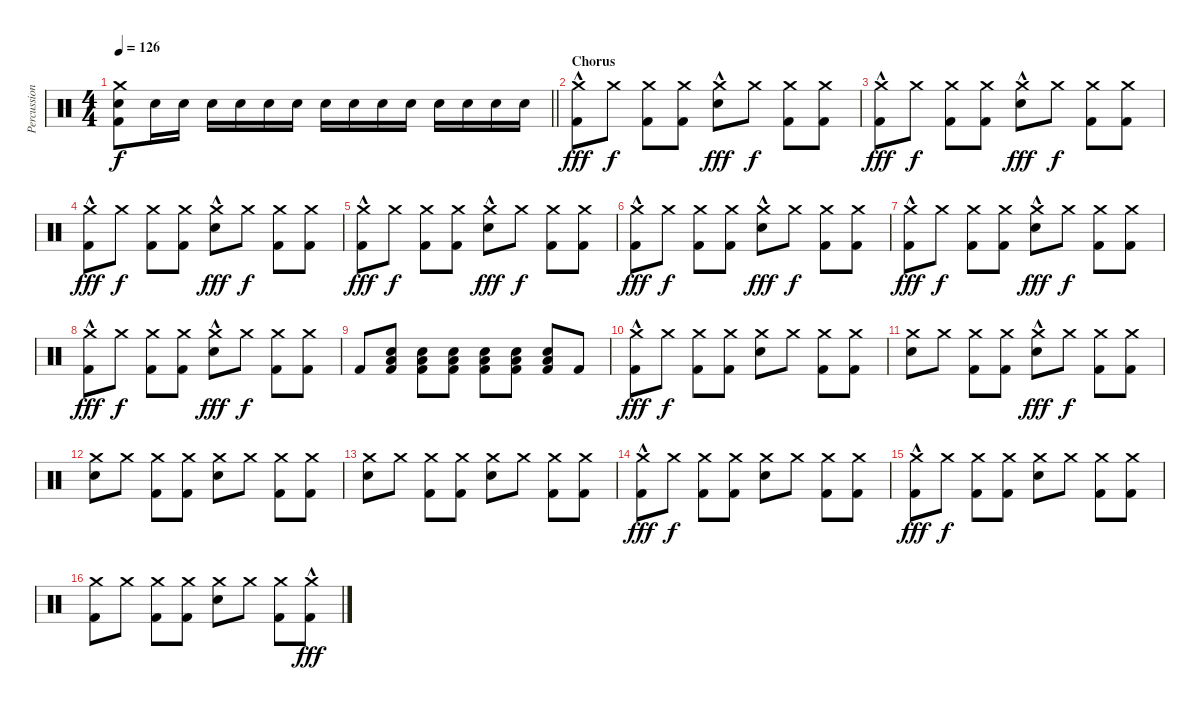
\track ("Percussion" "Percussion") {instrument percussion}
\staff {score}
\articulation defaults
\ts (4 4)
\tempo 126
\clef neutral
\barLineRight lightlight
\ks c
("Crash medium (hit)" "Snare (hit) 2" "Kick (hit) 2").8{dy f} "Snare (hit) 2".16 "Snare (hit) 2".16 "Snare (hit) 2".16 "Snare (hit) 2".16 "Snare (hit) 2".16 "Snare (hit) 2".16 "Snare (hit) 2".16 "Snare (hit) 2".16 "Snare (hit) 2".16 "Snare (hit) 2".16 "Snare (hit) 2".16 "Snare (hit) 2".16 "Snare (hit) 2".16 "Snare (hit) 2".16 |
\section ("" "Chorus")
("Crash medium (hit)"{hac} "Kick (hit) 2").8{dy fff} "Crash medium (hit)".8{dy f} ("Crash medium (hit)" "Kick (hit) 2").8 ("Crash medium (hit)" "Kick (hit) 2").8 ("Crash medium (hit)"{hac} "Snare (hit) 2").8{dy fff} "Crash medium (hit)".8{dy f} ("Crash medium (hit)" "Kick (hit) 2").8 ("Crash medium (hit)" "Kick (hit) 2").8 |
("Crash medium (hit)"{hac} "Kick (hit) 2").8{dy fff} "Crash medium (hit)".8{dy f} ("Crash medium (hit)" "Kick (hit) 2").8 ("Crash medium (hit)" "Kick (hit) 2").8 ("Crash medium (hit)"{hac} "Snare (hit) 2").8{dy fff} "Crash medium (hit)".8{dy f} ("Crash medium (hit)" "Kick (hit) 2").8 ("Crash medium (hit)" "Kick (hit) 2").8 |
("Crash medium (hit)"{hac} "Kick (hit) 2").8{dy fff} "Crash medium (hit)".8{dy f} ("Crash medium (hit)" "Kick (hit) 2").8 ("Crash medium (hit)" "Kick (hit) 2").8 ("Crash medium (hit)"{hac} "Snare (hit) 2").8{dy fff} "Crash medium (hit)".8{dy f} ("Crash medium (hit)" "Kick (hit) 2").8 ("Crash medium (hit)" "Kick (hit) 2").8 |
("Crash medium (hit)"{hac} "Kick (hit) 2").8{dy fff} "Crash medium (hit)".8{dy f} ("Crash medium (hit)" "Kick (hit) 2").8 ("Crash medium (hit)" "Kick (hit) 2").8 ("Crash medium (hit)"{hac} "Snare (hit) 2").8{dy fff} "Crash medium (hit)".8{dy f} ("Crash medium (hit)" "Kick (hit) 2").8 ("Crash medium (hit)" "Kick (hit) 2").8 |
("Crash medium (hit)"{hac} "Kick (hit) 2").8{dy fff} "Crash medium (hit)".8{dy f} ("Crash medium (hit)" "Kick (hit) 2").8 ("Crash medium (hit)" "Kick (hit) 2").8 ("Crash medium (hit)"{hac} "Snare (hit) 2").8{dy fff} "Crash medium (hit)".8{dy f} ("Crash medium (hit)" "Kick (hit) 2").8 ("Crash medium (hit)" "Kick (hit) 2").8 |
("Crash medium (hit)"{hac} "Kick (hit) 2").8{dy fff} "Crash medium (hit)".8{dy f} ("Crash medium (hit)" "Kick (hit) 2").8 ("Crash medium (hit)" "Kick (hit) 2").8 ("Crash medium (hit)"{hac} "Snare (hit) 2").8{dy fff} "Crash medium (hit)".8{dy f} ("Crash medium (hit)" "Kick (hit) 2").8 ("Crash medium (hit)" "Kick (hit) 2").8 |
("Crash medium (hit)"{hac} "Kick (hit) 2").8{dy fff} "Crash medium (hit)".8{dy f} ("Crash medium (hit)" "Kick (hit) 2").8 ("Crash medium (hit)" "Kick (hit) 2").8 ("Crash medium (hit)"{hac} "Snare (hit) 2").8{dy fff} "Crash medium (hit)".8{dy f} ("Crash medium (hit)" "Kick (hit) 2").8 ("Crash medium (hit)" "Kick (hit) 2").8 |
"Kick (hit) 2".8 ("Snare (hit) 2" "Low Floor Tom (hit)" "Kick (hit) 2").8 ("Snare (hit) 2" "Low Floor Tom (hit)" "Kick (hit) 2").8 ("Snare (hit) 2" "Low Floor Tom (hit)" "Kick (hit) 2").8 ("Snare (hit) 2" "Low Floor Tom (hit)" "Kick (hit) 2").8 ("Snare (hit) 2" "Low Floor Tom (hit)" "Kick (hit) 2").8 ("Snare (hit) 2" "Low Floor Tom (hit)" "Kick (hit) 2").8 "Kick (hit) 2".8 |
("Crash medium (hit)"{hac} "Kick (hit) 2").8{dy fff} "Crash medium (hit)".8{dy f} ("Crash medium (hit)" "Kick (hit) 2").8 ("Crash medium (hit)" "Kick (hit) 2").8 ("Crash medium (hit)" "Snare (hit) 2").8 "Crash medium (hit)".8 ("Crash medium (hit)" "Kick (hit) 2").8 ("Crash medium (hit)" "Kick (hit) 2").8 |
("Crash medium (hit)" "Snare (hit) 2").8 "Crash medium (hit)".8 ("Crash medium (hit)" "Kick (hit) 2").8 ("Crash medium (hit)" "Kick (hit) 2").8 ("Crash medium (hit)"{hac} "Snare (hit) 2").8{dy fff} "Crash medium (hit)".8{dy f} ("Crash medium (hit)" "Kick (hit) 2").8 ("Crash medium (hit)" "Kick (hit) 2").8 |
("Crash medium (hit)" "Snare (hit) 2").8 "Crash medium (hit)".8 ("Crash medium (hit)" "Kick (hit) 2").8 ("Crash medium (hit)" "Kick (hit) 2").8 ("Crash medium (hit)" "Snare (hit) 2").8 "Crash medium (hit)".8 ("Crash medium (hit)" "Kick (hit) 2").8 ("Crash medium (hit)" "Kick (hit) 2").8 |
("Crash medium (hit)" "Snare (hit) 2").8 "Crash medium (hit)".8 ("Crash medium (hit)" "Kick (hit) 2").8 ("Crash medium (hit)" "Kick (hit) 2").8 ("Crash medium (hit)" "Snare (hit) 2").8 "Crash medium (hit)".8 ("Crash medium (hit)" "Kick (hit) 2").8 ("Crash medium (hit)" "Kick (hit) 2").8 |
("Crash medium (hit)"{hac} "Kick (hit) 2").8{dy fff} "Crash medium (hit)".8{dy f} ("Crash medium (hit)" "Kick (hit) 2").8 ("Crash medium (hit)" "Kick (hit) 2").8 ("Crash medium (hit)" "Snare (hit) 2").8 "Crash medium (hit)".8 ("Crash medium (hit)" "Kick (hit) 2").8 ("Crash medium (hit)" "Kick (hit) 2").8 |
("Crash medium (hit)"{hac} "Kick (hit) 2").8{dy fff} "Crash medium (hit)".8{dy f} ("Crash medium (hit)" "Kick (hit) 2").8 ("Crash medium (hit)" "Kick (hit) 2").8 ("Crash medium (hit)" "Snare (hit) 2").8 "Crash medium (hit)".8 ("Crash medium (hit)" "Kick (hit) 2").8 ("Crash medium (hit)" "Kick (hit) 2").8 |
("Crash medium (hit)" "Kick (hit) 2").8 "Crash medium (hit)".8 ("Crash medium (hit)" "Kick (hit) 2").8 ("Crash medium (hit)" "Kick (hit) 2").8 ("Crash medium (hit)" "Snare (hit) 2").8 "Crash medium (hit)".8 ("Crash medium (hit)" "Kick (hit) 2").8 ("Crash medium (hit)"{hac} "Kick (hit) 2").8{dy fff}
